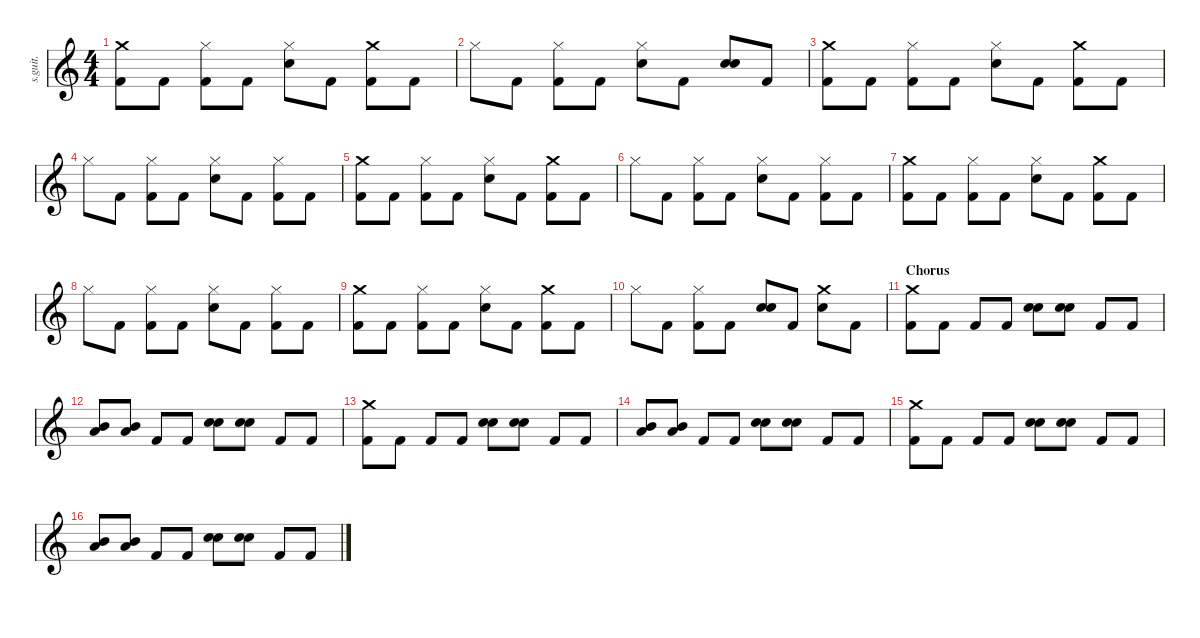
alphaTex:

\defaultSystemsLayout 4
\hideDynamics
\bracketExtendMode nobrackets
\track ("Taylor Hawkins" "s.guit.") {instrument percussion}
\staff {score}
\articulation defaults
\ts (4 4)
\tempo (154 hide)
\clef g2
\ks c
("Crash medium (hit)" "Kick (hit) 2").8{lyrics (0 "") lyrics (1 "") lyrics (2 "") lyrics (3 "") lyrics (4 "") dy f} "Kick (hit) 2".8{lyrics (0 "") lyrics (1 "") lyrics (2 "") lyrics (3 "") lyrics (4 "")} ("Hi-Hat (closed)" "Kick (hit) 2").8{lyrics (0 "") lyrics (1 "") lyrics (2 "") lyrics (3 "") lyrics (4 "")} "Kick (hit) 2".8{lyrics (0 "") lyrics (1 "") lyrics (2 "") lyrics (3 "") lyrics (4 "")} ("Hi-Hat (closed)" "Electric Snare (hit)").8{lyrics (0 "") lyrics (1 "") lyrics (2 "") lyrics (3 "") lyrics (4 "")} "Kick (hit) 2".8{lyrics (0 "") lyrics (1 "") lyrics (2 "") lyrics (3 "") lyrics (4 "")} ("Crash medium (hit)" "Kick (hit) 2").8{lyrics (0 "") lyrics (1 "") lyrics (2 "") lyrics (3 "") lyrics (4 "")} "Kick (hit) 2".8{lyrics (0 "") lyrics (1 "") lyrics (2 "") lyrics (3 "") lyrics (4 "")} |
"Hi-Hat (closed)".8{lyrics (0 "") lyrics (1 "") lyrics (2 "") lyrics (3 "") lyrics (4 "")} "Kick (hit) 2".8{lyrics (0 "") lyrics (1 "") lyrics (2 "") lyrics (3 "") lyrics (4 "")} ("Hi-Hat (closed)" "Kick (hit) 2").8{lyrics (0 "") lyrics (1 "") lyrics (2 "") lyrics (3 "") lyrics (4 "")} "Kick (hit) 2".8{lyrics (0 "") lyrics (1 "") lyrics (2 "") lyrics (3 "") lyrics (4 "")} ("Hi-Hat (closed)" "Electric Snare (hit)").8{lyrics (0 "") lyrics (1 "") lyrics (2 "") lyrics (3 "") lyrics (4 "")} "Kick (hit) 2".8{lyrics (0 "") lyrics (1 "") lyrics (2 "") lyrics (3 "") lyrics (4 "")} ("Snare (hit) 2" "Electric Snare (hit)").8{lyrics (0 "") lyrics (1 "") lyrics (2 "") lyrics (3 "") lyrics (4 "")} "Kick (hit) 2".8{lyrics (0 "") lyrics (1 "") lyrics (2 "") lyrics (3 "") lyrics (4 "")} |
("Crash medium (hit)" "Kick (hit) 2").8{lyrics (0 "") lyrics (1 "") lyrics (2 "") lyrics (3 "") lyrics (4 "")} "Kick (hit) 2".8{lyrics (0 "") lyrics (1 "") lyrics (2 "") lyrics (3 "") lyrics (4 "")} ("Hi-Hat (closed)" "Kick (hit) 2").8{lyrics (0 "") lyrics (1 "") lyrics (2 "") lyrics (3 "") lyrics (4 "")} "Kick (hit) 2".8{lyrics (0 "") lyrics (1 "") lyrics (2 "") lyrics (3 "") lyrics (4 "")} ("Hi-Hat (closed)" "Electric Snare (hit)").8{lyrics (0 "") lyrics (1 "") lyrics (2 "") lyrics (3 "") lyrics (4 "")} "Kick (hit) 2".8{lyrics (0 "") lyrics (1 "") lyrics (2 "") lyrics (3 "") lyrics (4 "")} ("Crash medium (hit)" "Kick (hit) 2").8{lyrics (0 "") lyrics (1 "") lyrics (2 "") lyrics (3 "") lyrics (4 "")} "Kick (hit) 2".8{lyrics (0 "") lyrics (1 "") lyrics (2 "") lyrics (3 "") lyrics (4 "")} |
"Hi-Hat (closed)".8{lyrics (0 "") lyrics (1 "") lyrics (2 "") lyrics (3 "") lyrics (4 "")} "Kick (hit) 2".8{lyrics (0 "") lyrics (1 "") lyrics (2 "") lyrics (3 "") lyrics (4 "")} ("Hi-Hat (closed)" "Kick (hit) 2").8{lyrics (0 "") lyrics (1 "") lyrics (2 "") lyrics (3 "") lyrics (4 "")} "Kick (hit) 2".8{lyrics (0 "") lyrics (1 "") lyrics (2 "") lyrics (3 "") lyrics (4 "")} ("Hi-Hat (closed)" "Electric Snare (hit)").8{lyrics (0 "") lyrics (1 "") lyrics (2 "") lyrics (3 "") lyrics (4 "")} "Kick (hit) 2".8{lyrics (0 "") lyrics (1 "") lyrics (2 "") lyrics (3 "") lyrics (4 "")} ("Hi-Hat (closed)" "Kick (hit) 2").8{lyrics (0 "") lyrics (1 "") lyrics (2 "") lyrics (3 "") lyrics (4 "")} "Kick (hit) 2".8{lyrics (0 "") lyrics (1 "") lyrics (2 "") lyrics (3 "") lyrics (4 "")} |
("Crash medium (hit)" "Kick (hit) 2").8{lyrics (0 "") lyrics (1 "") lyrics (2 "") lyrics (3 "") lyrics (4 "")} "Kick (hit) 2".8{lyrics (0 "") lyrics (1 "") lyrics (2 "") lyrics (3 "") lyrics (4 "")} ("Hi-Hat (closed)" "Kick (hit) 2").8{lyrics (0 "") lyrics (1 "") lyrics (2 "") lyrics (3 "") lyrics (4 "")} "Kick (hit) 2".8{lyrics (0 "") lyrics (1 "") lyrics (2 "") lyrics (3 "") lyrics (4 "")} ("Hi-Hat (closed)" "Electric Snare (hit)").8{lyrics (0 "") lyrics (1 "") lyrics (2 "") lyrics (3 "") lyrics (4 "")} "Kick (hit) 2".8{lyrics (0 "") lyrics (1 "") lyrics (2 "") lyrics (3 "") lyrics (4 "")} ("Crash medium (hit)" "Kick (hit) 2").8{lyrics (0 "") lyrics (1 "") lyrics (2 "") lyrics (3 "") lyrics (4 "")} "Kick (hit) 2".8{lyrics (0 "") lyrics (1 "") lyrics (2 "") lyrics (3 "") lyrics (4 "")} |
"Hi-Hat (closed)".8{lyrics (0 "") lyrics (1 "") lyrics (2 "") lyrics (3 "") lyrics (4 "")} "Kick (hit) 2".8{lyrics (0 "") lyrics (1 "") lyrics (2 "") lyrics (3 "") lyrics (4 "")} ("Hi-Hat (closed)" "Kick (hit) 2").8{lyrics (0 "") lyrics (1 "") lyrics (2 "") lyrics (3 "") lyrics (4 "")} "Kick (hit) 2".8{lyrics (0 "") lyrics (1 "") lyrics (2 "") lyrics (3 "") lyrics (4 "")} ("Hi-Hat (closed)" "Electric Snare (hit)").8{lyrics (0 "") lyrics (1 "") lyrics (2 "") lyrics (3 "") lyrics (4 "")} "Kick (hit) 2".8{lyrics (0 "") lyrics (1 "") lyrics (2 "") lyrics (3 "") lyrics (4 "")} ("Hi-Hat (closed)" "Kick (hit) 2").8{lyrics (0 "") lyrics (1 "") lyrics (2 "") lyrics (3 "") lyrics (4 "")} "Kick (hit) 2".8{lyrics (0 "") lyrics (1 "") lyrics (2 "") lyrics (3 "") lyrics (4 "")} |
("Crash medium (hit)" "Kick (hit) 2").8{lyrics (0 "") lyrics (1 "") lyrics (2 "") lyrics (3 "") lyrics (4 "")} "Kick (hit) 2".8{lyrics (0 "") lyrics (1 "") lyrics (2 "") lyrics (3 "") lyrics (4 "")} ("Hi-Hat (closed)" "Kick (hit) 2").8{lyrics (0 "") lyrics (1 "") lyrics (2 "") lyrics (3 "") lyrics (4 "")} "Kick (hit) 2".8{lyrics (0 "") lyrics (1 "") lyrics (2 "") lyrics (3 "") lyrics (4 "")} ("Hi-Hat (closed)" "Electric Snare (hit)").8{lyrics (0 "") lyrics (1 "") lyrics (2 "") lyrics (3 "") lyrics (4 "")} "Kick (hit) 2".8{lyrics (0 "") lyrics (1 "") lyrics (2 "") lyrics (3 "") lyrics (4 "")} ("Crash medium (hit)" "Kick (hit) 2").8{lyrics (0 "") lyrics (1 "") lyrics (2 "") lyrics (3 "") lyrics (4 "")} "Kick (hit) 2".8{lyrics (0 "") lyrics (1 "") lyrics (2 "") lyrics (3 "") lyrics (4 "")} |
"Hi-Hat (closed)".8{lyrics (0 "") lyrics (1 "") lyrics (2 "") lyrics (3 "") lyrics (4 "")} "Kick (hit) 2".8{lyrics (0 "") lyrics (1 "") lyrics (2 "") lyrics (3 "") lyrics (4 "")} ("Hi-Hat (closed)" "Kick (hit) 2").8{lyrics (0 "") lyrics (1 "") lyrics (2 "") lyrics (3 "") lyrics (4 "")} "Kick (hit) 2".8{lyrics (0 "") lyrics (1 "") lyrics (2 "") lyrics (3 "") lyrics (4 "")} ("Hi-Hat (closed)" "Electric Snare (hit)").8{lyrics (0 "") lyrics (1 "") lyrics (2 "") lyrics (3 "") lyrics (4 "")} "Kick (hit) 2".8{lyrics (0 "") lyrics (1 "") lyrics (2 "") lyrics (3 "") lyrics (4 "")} ("Hi-Hat (closed)" "Kick (hit) 2").8{lyrics (0 "") lyrics (1 "") lyrics (2 "") lyrics (3 "") lyrics (4 "")} "Kick (hit) 2".8{lyrics (0 "") lyrics (1 "") lyrics (2 "") lyrics (3 "") lyrics (4 "")} |
("Crash medium (hit)" "Kick (hit) 2").8{lyrics (0 "") lyrics (1 "") lyrics (2 "") lyrics (3 "") lyrics (4 "")} "Kick (hit) 2".8{lyrics (0 "") lyrics (1 "") lyrics (2 "") lyrics (3 "") lyrics (4 "")} ("Hi-Hat (closed)" "Kick (hit) 2").8{lyrics (0 "") lyrics (1 "") lyrics (2 "") lyrics (3 "") lyrics (4 "")} "Kick (hit) 2".8{lyrics (0 "") lyrics (1 "") lyrics (2 "") lyrics (3 "") lyrics (4 "")} ("Hi-Hat (closed)" "Electric Snare (hit)").8{lyrics (0 "") lyrics (1 "") lyrics (2 "") lyrics (3 "") lyrics (4 "")} "Kick (hit) 2".8{lyrics (0 "") lyrics (1 "") lyrics (2 "") lyrics (3 "") lyrics (4 "")} ("Crash medium (hit)" "Kick (hit) 2").8{lyrics (0 "") lyrics (1 "") lyrics (2 "") lyrics (3 "") lyrics (4 "")} "Kick (hit) 2".8{lyrics (0 "") lyrics (1 "") lyrics (2 "") lyrics (3 "") lyrics (4 "")} |
"Hi-Hat (closed)".8{lyrics (0 "") lyrics (1 "") lyrics (2 "") lyrics (3 "") lyrics (4 "")} "Kick (hit) 2".8{lyrics (0 "") lyrics (1 "") lyrics (2 "") lyrics (3 "") lyrics (4 "")} ("Hi-Hat (closed)" "Kick (hit) 2").8{lyrics (0 "") lyrics (1 "") lyrics (2 "") lyrics (3 "") lyrics (4 "")} "Kick (hit) 2".8{lyrics (0 "") lyrics (1 "") lyrics (2 "") lyrics (3 "") lyrics (4 "")} ("Snare (hit) 2" "Electric Snare (hit)").8{lyrics (0 "") lyrics (1 "") lyrics (2 "") lyrics (3 "") lyrics (4 "")} "Kick (hit) 2".8{lyrics (0 "") lyrics (1 "") lyrics (2 "") lyrics (3 "") lyrics (4 "")} ("Crash medium (hit)" "Electric Snare (hit)").8{lyrics (0 "") lyrics (1 "") lyrics (2 "") lyrics (3 "") lyrics (4 "")} "Kick (hit) 2".8{lyrics (0 "") lyrics (1 "") lyrics (2 "") lyrics (3 "") lyrics (4 "")} |
\section ("" "Chorus")
("Crash medium (hit)" "Kick (hit) 2").8{lyrics (0 "") lyrics (1 "") lyrics (2 "") lyrics (3 "") lyrics (4 "")} "Kick (hit) 2".8{lyrics (0 "") lyrics (1 "") lyrics (2 "") lyrics (3 "") lyrics (4 "")} "Kick (hit) 2".8{lyrics (0 "") lyrics (1 "") lyrics (2 "") lyrics (3 "") lyrics (4 "")} "Kick (hit) 2".8{lyrics (0 "") lyrics (1 "") lyrics (2 "") lyrics (3 "") lyrics (4 "")} ("Snare (hit) 2" "Electric Snare (hit)").8{lyrics (0 "") lyrics (1 "") lyrics (2 "") lyrics (3 "") lyrics (4 "")} ("Snare (hit) 2" "Electric Snare (hit)").8{lyrics (0 "") lyrics (1 "") lyrics (2 "") lyrics (3 "") lyrics (4 "")} "Kick (hit) 2".8{lyrics (0 "") lyrics (1 "") lyrics (2 "") lyrics (3 "") lyrics (4 "")} "Kick (hit) 2".8{lyrics (0 "") lyrics (1 "") lyrics (2 "") lyrics (3 "") lyrics (4 "")} |
("Low Floor Tom (hit)" "Mid Tom (hit)").8{lyrics (0 "") lyrics (1 "") lyrics (2 "") lyrics (3 "") lyrics (4 "")} ("Low Floor Tom (hit)" "Mid Tom (hit)").8{lyrics (0 "") lyrics (1 "") lyrics (2 "") lyrics (3 "") lyrics (4 "")} "Kick (hit) 2".8{lyrics (0 "") lyrics (1 "") lyrics (2 "") lyrics (3 "") lyrics (4 "")} "Kick (hit) 2".8{lyrics (0 "") lyrics (1 "") lyrics (2 "") lyrics (3 "") lyrics (4 "")} ("Snare (hit) 2" "Electric Snare (hit)").8{lyrics (0 "") lyrics (1 "") lyrics (2 "") lyrics (3 "") lyrics (4 "")} ("Snare (hit) 2" "Electric Snare (hit)").8{lyrics (0 "") lyrics (1 "") lyrics (2 "") lyrics (3 "") lyrics (4 "")} "Kick (hit) 2".8{lyrics (0 "") lyrics (1 "") lyrics (2 "") lyrics (3 "") lyrics (4 "")} "Kick (hit) 2".8{lyrics (0 "") lyrics (1 "") lyrics (2 "") lyrics (3 "") lyrics (4 "")} |
("Crash medium (hit)" "Kick (hit) 2").8{lyrics (0 "") lyrics (1 "") lyrics (2 "") lyrics (3 "") lyrics (4 "")} "Kick (hit) 2".8{lyrics (0 "") lyrics (1 "") lyrics (2 "") lyrics (3 "") lyrics (4 "")} "Kick (hit) 2".8{lyrics (0 "") lyrics (1 "") lyrics (2 "") lyrics (3 "") lyrics (4 "")} "Kick (hit) 2".8{lyrics (0 "") lyrics (1 "") lyrics (2 "") lyrics (3 "") lyrics (4 "")} ("Snare (hit) 2" "Electric Snare (hit)").8{lyrics (0 "") lyrics (1 "") lyrics (2 "") lyrics (3 "") lyrics (4 "")} ("Snare (hit) 2" "Electric Snare (hit)").8{lyrics (0 "") lyrics (1 "") lyrics (2 "") lyrics (3 "") lyrics (4 "")} "Kick (hit) 2".8{lyrics (0 "") lyrics (1 "") lyrics (2 "") lyrics (3 "") lyrics (4 "")} "Kick (hit) 2".8{lyrics (0 "") lyrics (1 "") lyrics (2 "") lyrics (3 "") lyrics (4 "")} |
("Mid Tom (hit)" "Low Tom (hit)").8{lyrics (0 "") lyrics (1 "") lyrics (2 "") lyrics (3 "") lyrics (4 "")} ("Low Tom (hit)" "Mid Tom (hit)").8{lyrics (0 "") lyrics (1 "") lyrics (2 "") lyrics (3 "") lyrics (4 "")} "Kick (hit) 2".8{lyrics (0 "") lyrics (1 "") lyrics (2 "") lyrics (3 "") lyrics (4 "")} "Kick (hit) 2".8{lyrics (0 "") lyrics (1 "") lyrics (2 "") lyrics (3 "") lyrics (4 "")} ("Snare (hit) 2" "Electric Snare (hit)").8{lyrics (0 "") lyrics (1 "") lyrics (2 "") lyrics (3 "") lyrics (4 "")} ("Snare (hit) 2" "Electric Snare (hit)").8{lyrics (0 "") lyrics (1 "") lyrics (2 "") lyrics (3 "") lyrics (4 "")} "Kick (hit) 2".8{lyrics (0 "") lyrics (1 "") lyrics (2 "") lyrics (3 "") lyrics (4 "")} "Kick (hit) 2".8{lyrics (0 "") lyrics (1 "") lyrics (2 "") lyrics (3 "") lyrics (4 "")} |
("Crash medium (hit)" "Kick (hit) 2").8{lyrics (0 "") lyrics (1 "") lyrics (2 "") lyrics (3 "") lyrics (4 "")} "Kick (hit) 2".8{lyrics (0 "") lyrics (1 "") lyrics (2 "") lyrics (3 "") lyrics (4 "")} "Kick (hit) 2".8{lyrics (0 "") lyrics (1 "") lyrics (2 "") lyrics (3 "") lyrics (4 "")} "Kick (hit) 2".8{lyrics (0 "") lyrics (1 "") lyrics (2 "") lyrics (3 "") lyrics (4 "")} ("Snare (hit) 2" "Electric Snare (hit)").8{lyrics (0 "") lyrics (1 "") lyrics (2 "") lyrics (3 "") lyrics (4 "")} ("Snare (hit) 2" "Electric Snare (hit)").8{lyrics (0 "") lyrics (1 "") lyrics (2 "") lyrics (3 "") lyrics (4 "")} "Kick (hit) 2".8{lyrics (0 "") lyrics (1 "") lyrics (2 "") lyrics (3 "") lyrics (4 "")} "Kick (hit) 2".8{lyrics (0 "") lyrics (1 "") lyrics (2 "") lyrics (3 "") lyrics (4 "")} |
("Low Floor Tom (hit)" "Mid Tom (hit)").8{lyrics (0 "") lyrics (1 "") lyrics (2 "") lyrics (3 "") lyrics (4 "")} ("Low Floor Tom (hit)" "Mid Tom (hit)").8{lyrics (0 "") lyrics (1 "") lyrics (2 "") lyrics (3 "") lyrics (4 "")} "Kick (hit) 2".8{lyrics (0 "") lyrics (1 "") lyrics (2 "") lyrics (3 "") lyrics (4 "")} "Kick (hit) 2".8{lyrics (0 "") lyrics (1 "") lyrics (2 "") lyrics (3 "") lyrics (4 "")} ("Snare (hit) 2" "Electric Snare (hit)").8{lyrics (0 "") lyrics (1 "") lyrics (2 "") lyrics (3 "") lyrics (4 "")} ("Snare (hit) 2" "Electric Snare (hit)").8{lyrics (0 "") lyrics (1 "") lyrics (2 "") lyrics (3 "") lyrics (4 "")} "Kick (hit) 2".8{lyrics (0 "") lyrics (1 "") lyrics (2 "") lyrics (3 "") lyrics (4 "")} "Kick (hit) 2".8{lyrics (0 "") lyrics (1 "") lyrics (2 "") lyrics (3 "") lyrics (4 "")}
